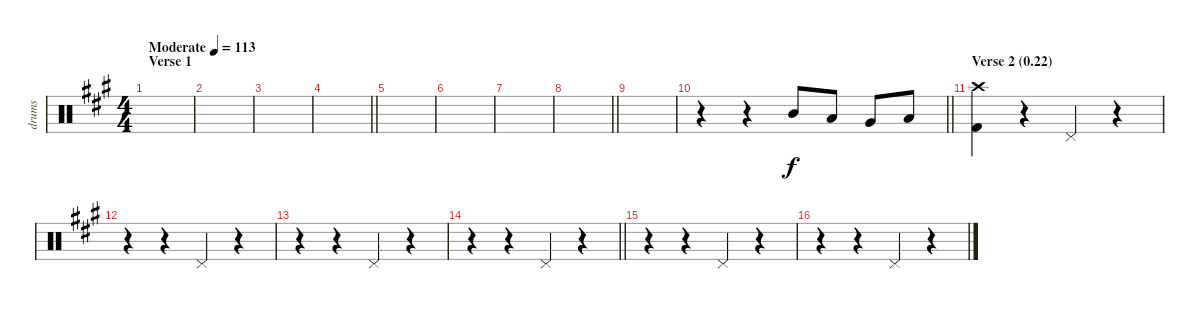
\track ("drums" "drums") {instrument percussion}
\staff {score}
\articulation defaults
\ts (4 4)
\section ("" "Verse 1")
\tempo (113 "Moderate")
\clef neutral
\ks a
|
|
|
\barLineRight lightlight
|
|
|
|
\barLineRight lightlight
|
|
\barLineRight lightlight
r.4 r.4 "Mid Tom (hit)".8 "Low Tom (hit)".8 "Very Low Tom (hit)".8 "Low Tom (hit)".8 |
\section ("" "Verse 2 (0.22)")
("Crash high (hit)" "Kick (hit) 2").4 r.4 "Pedal Hi-Hat (hit)".4 r.4 |
r.4 r.4 "Pedal Hi-Hat (hit)".4 r.4 |
r.4 r.4 "Pedal Hi-Hat (hit)".4 r.4 |
\barLineRight lightlight
r.4 r.4 "Pedal Hi-Hat (hit)".4 r.4 |
r.4 r.4 "Pedal Hi-Hat (hit)".4 r.4 |
r.4 r.4 "Pedal Hi-Hat (hit)".4 r.4
